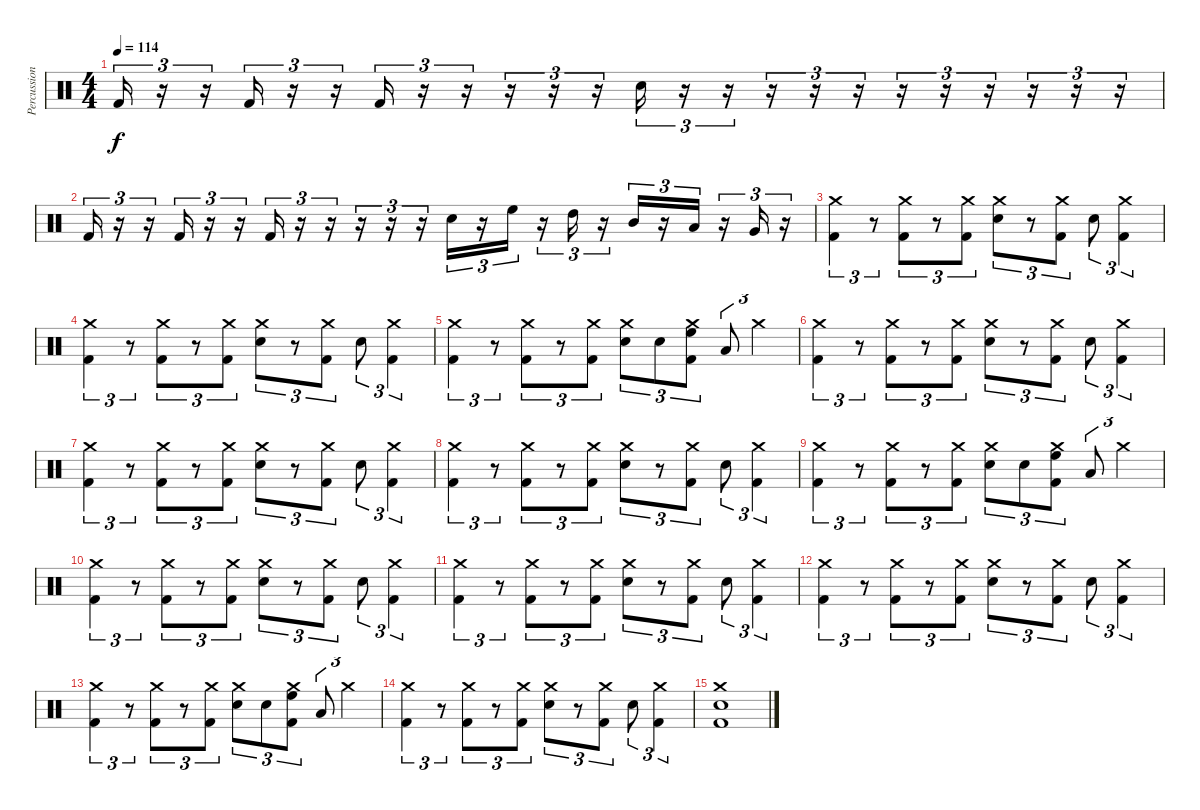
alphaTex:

\track ("Percussion" "Percussion") {instrument percussion}
\staff {score}
\articulation defaults
\ts (4 4)
\tempo 114
\clef neutral
\ks c "Kick (hit) 2".16{tu (3 2) dy f}
r.16{tu (3 2)} r.16{tu (3 2)} "Kick (hit) 2".16{tu (3 2)} r.16{tu (3 2)} r.16{tu (3 2)} "Kick (hit) 2".16{tu (3 2)} r.16{tu (3 2)} r.16{tu (3 2)} r.16{tu (3 2)} r.16{tu (3 2)} r.16{tu (3 2)} "Electric Snare (hit)".16{tu (3 2)} r.16{tu (3 2)} r.16{tu (3 2)} r.16{tu (3 2)} r.16{tu (3 2)} r.16{tu (3 2)} r.16{tu (3 2)} r.16{tu (3 2)} r.16{tu (3 2)} r.16{tu (3 2)} r.16{tu (3 2)} r.16{tu (3 2)} |
"Kick (hit) 2".16{tu (3 2)} r.16{tu (3 2)} r.16{tu (3 2)} "Kick (hit) 2".16{tu (3 2)} r.16{tu (3 2)} r.16{tu (3 2)} "Kick (hit) 2".16{tu (3 2)} r.16{tu (3 2)} r.16{tu (3 2)} r.16{tu (3 2)} r.16{tu (3 2)} r.16{tu (3 2)} "Electric Snare (hit)".16{tu (3 2)} r.16{tu (3 2)} "High Floor Tom (hit)".16{tu (3 2)} r.16{tu (3 2)} "High Tom (hit)".16{tu (3 2)} r.16{tu (3 2)} "Mid Tom (hit)".16{tu (3 2)} r.16{tu (3 2)} "Low Tom (hit)".16{tu (3 2)} r.16{tu (3 2)} "Very Low Tom (hit)".16{tu (3 2)} r.16{tu (3 2)} |
("Crash medium (hit)" "Kick (hit) 2").4{tu (3 2)} r.8{tu (3 2)} ("Crash medium (hit)" "Kick (hit) 2").8{tu (3 2)} r.8{tu (3 2)} ("Crash medium (hit)" "Kick (hit) 2").8{tu (3 2)} ("Crash medium (hit)" "Electric Snare (hit)").8{tu (3 2)} r.8{tu (3 2)} ("Crash medium (hit)" "Kick (hit) 2").8{tu (3 2)} "Electric Snare (hit)".8{tu (3 2)} ("Crash medium (hit)" "Kick (hit) 2").4{tu (3 2)} |
("Crash medium (hit)" "Kick (hit) 2").4{tu (3 2)} r.8{tu (3 2)} ("Crash medium (hit)" "Kick (hit) 2").8{tu (3 2)} r.8{tu (3 2)} ("Crash medium (hit)" "Kick (hit) 2").8{tu (3 2)} ("Crash medium (hit)" "Electric Snare (hit)").8{tu (3 2)} r.8{tu (3 2)} ("Crash medium (hit)" "Kick (hit) 2").8{tu (3 2)} "Electric Snare (hit)".8{tu (3 2)} ("Crash medium (hit)" "Kick (hit) 2").4{tu (3 2)} |
("Crash medium (hit)" "Kick (hit) 2").4{tu (3 2)} r.8{tu (3 2)} ("Crash medium (hit)" "Kick (hit) 2").8{tu (3 2)} r.8{tu (3 2)} ("Crash medium (hit)" "Kick (hit) 2").8{tu (3 2)} ("Crash medium (hit)" "Electric Snare (hit)").8{tu (3 2)} "Electric Snare (hit)".8{tu (3 2)} ("Crash medium (hit)" "High Floor Tom (hit)" "Kick (hit) 2").8{tu (3 2)} "Low Tom (hit)".8{tu (3 2)} "Crash medium (hit)".4{tu (3 2)} |
("Crash medium (hit)" "Kick (hit) 2").4{tu (3 2)} r.8{tu (3 2)} ("Crash medium (hit)" "Kick (hit) 2").8{tu (3 2)} r.8{tu (3 2)} ("Crash medium (hit)" "Kick (hit) 2").8{tu (3 2)} ("Crash medium (hit)" "Electric Snare (hit)").8{tu (3 2)} r.8{tu (3 2)} ("Crash medium (hit)" "Kick (hit) 2").8{tu (3 2)} "Electric Snare (hit)".8{tu (3 2)} ("Crash medium (hit)" "Kick (hit) 2").4{tu (3 2)} |
("Crash medium (hit)" "Kick (hit) 2").4{tu (3 2)} r.8{tu (3 2)} ("Crash medium (hit)" "Kick (hit) 2").8{tu (3 2)} r.8{tu (3 2)} ("Crash medium (hit)" "Kick (hit) 2").8{tu (3 2)} ("Crash medium (hit)" "Electric Snare (hit)").8{tu (3 2)} r.8{tu (3 2)} ("Crash medium (hit)" "Kick (hit) 2").8{tu (3 2)} "Electric Snare (hit)".8{tu (3 2)} ("Crash medium (hit)" "Kick (hit) 2").4{tu (3 2)} |
("Crash medium (hit)" "Kick (hit) 2").4{tu (3 2)} r.8{tu (3 2)} ("Crash medium (hit)" "Kick (hit) 2").8{tu (3 2)} r.8{tu (3 2)} ("Crash medium (hit)" "Kick (hit) 2").8{tu (3 2)} ("Crash medium (hit)" "Electric Snare (hit)").8{tu (3 2)} r.8{tu (3 2)} ("Crash medium (hit)" "Kick (hit) 2").8{tu (3 2)} "Electric Snare (hit)".8{tu (3 2)} ("Crash medium (hit)" "Kick (hit) 2").4{tu (3 2)} |
("Crash medium (hit)" "Kick (hit) 2").4{tu (3 2)} r.8{tu (3 2)} ("Crash medium (hit)" "Kick (hit) 2").8{tu (3 2)} r.8{tu (3 2)} ("Crash medium (hit)" "Kick (hit) 2").8{tu (3 2)} ("Crash medium (hit)" "Electric Snare (hit)").8{tu (3 2)} "Electric Snare (hit)".8{tu (3 2)} ("Crash medium (hit)" "High Floor Tom (hit)" "Kick (hit) 2").8{tu (3 2)} "Low Tom (hit)".8{tu (3 2)} "Crash medium (hit)".4{tu (3 2)} |
("Crash medium (hit)" "Kick (hit) 2").4{tu (3 2)} r.8{tu (3 2)} ("Crash medium (hit)" "Kick (hit) 2").8{tu (3 2)} r.8{tu (3 2)} ("Crash medium (hit)" "Kick (hit) 2").8{tu (3 2)} ("Crash medium (hit)" "Electric Snare (hit)").8{tu (3 2)} r.8{tu (3 2)} ("Crash medium (hit)" "Kick (hit) 2").8{tu (3 2)} "Electric Snare (hit)".8{tu (3 2)} ("Crash medium (hit)" "Kick (hit) 2").4{tu (3 2)} |
("Crash medium (hit)" "Kick (hit) 2").4{tu (3 2)} r.8{tu (3 2)} ("Crash medium (hit)" "Kick (hit) 2").8{tu (3 2)} r.8{tu (3 2)} ("Crash medium (hit)" "Kick (hit) 2").8{tu (3 2)} ("Crash medium (hit)" "Electric Snare (hit)").8{tu (3 2)} r.8{tu (3 2)} ("Crash medium (hit)" "Kick (hit) 2").8{tu (3 2)} "Electric Snare (hit)".8{tu (3 2)} ("Crash medium (hit)" "Kick (hit) 2").4{tu (3 2)} |
("Crash medium (hit)" "Kick (hit) 2").4{tu (3 2)} r.8{tu (3 2)} ("Crash medium (hit)" "Kick (hit) 2").8{tu (3 2)} r.8{tu (3 2)} ("Crash medium (hit)" "Kick (hit) 2").8{tu (3 2)} ("Crash medium (hit)" "Electric Snare (hit)").8{tu (3 2)} r.8{tu (3 2)} ("Crash medium (hit)" "Kick (hit) 2").8{tu (3 2)} "Electric Snare (hit)".8{tu (3 2)} ("Crash medium (hit)" "Kick (hit) 2").4{tu (3 2)} |
("Crash medium (hit)" "Kick (hit) 2").4{tu (3 2)} r.8{tu (3 2)} ("Crash medium (hit)" "Kick (hit) 2").8{tu (3 2)} r.8{tu (3 2)} ("Crash medium (hit)" "Kick (hit) 2").8{tu (3 2)} ("Crash medium (hit)" "Electric Snare (hit)").8{tu (3 2)} "Electric Snare (hit)".8{tu (3 2)} ("Crash medium (hit)" "High Floor Tom (hit)" "Kick (hit) 2").8{tu (3 2)} "Low Tom (hit)".8{tu (3 2)} "Crash medium (hit)".4{tu (3 2)} |
("Crash medium (hit)" "Kick (hit) 2").4{tu (3 2)} r.8{tu (3 2)} ("Crash medium (hit)" "Kick (hit) 2").8{tu (3 2)} r.8{tu (3 2)} ("Crash medium (hit)" "Kick (hit) 2").8{tu (3 2)} ("Crash medium (hit)" "Electric Snare (hit)").8{tu (3 2)} r.8{tu (3 2)} ("Crash medium (hit)" "Kick (hit) 2").8{tu (3 2)} "Electric Snare (hit)".8{tu (3 2)} ("Crash medium (hit)" "Kick (hit) 2").4{tu (3 2)} |
("Crash medium (hit)" "Electric Snare (hit)" "Kick (hit) 2").1
